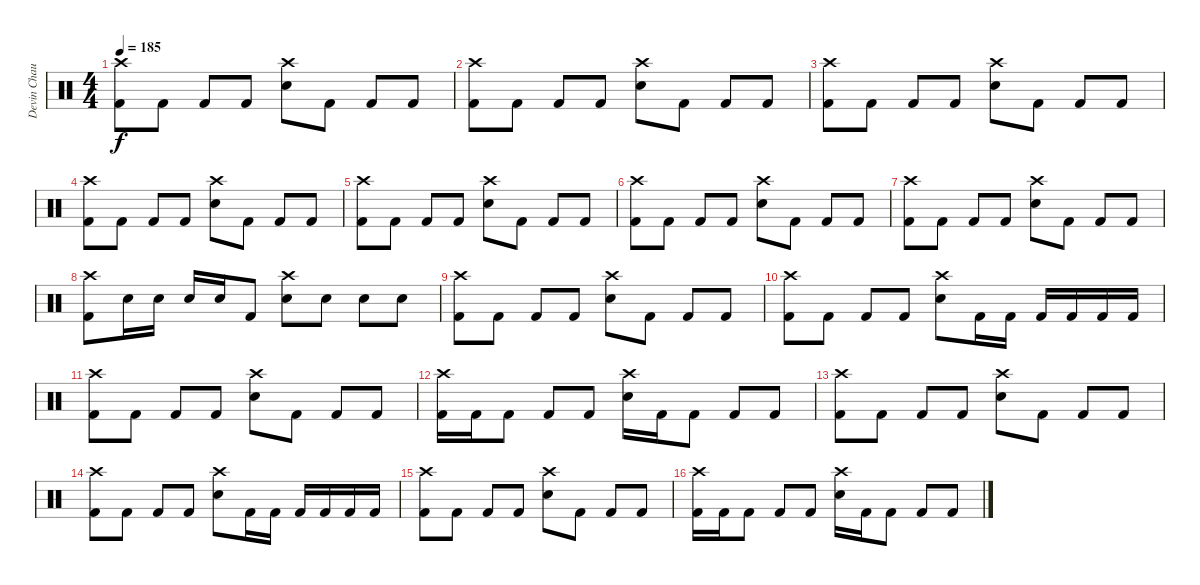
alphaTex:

\track ("Devin Chaulk" "Devin Chau") {instrument percussion}
\staff {score}
\articulation defaults
\ts (4 4)
\tempo 185
\clef neutral
\ks c
("Crash high (hit)" "Kick (hit) 2").8{dy f} "Kick (hit) 2".8 "Kick (hit) 2".8 "Kick (hit) 2".8 ("Crash high (hit)" "Snare (hit) 2").8 "Kick (hit) 2".8 "Kick (hit) 2".8 "Kick (hit) 2".8 |
("Crash high (hit)" "Kick (hit) 2").8 "Kick (hit) 2".8 "Kick (hit) 2".8 "Kick (hit) 2".8 ("Crash high (hit)" "Snare (hit) 2").8 "Kick (hit) 2".8 "Kick (hit) 2".8 "Kick (hit) 2".8 |
("Crash high (hit)" "Kick (hit) 2").8 "Kick (hit) 2".8 "Kick (hit) 2".8 "Kick (hit) 2".8 ("Crash high (hit)" "Snare (hit) 2").8 "Kick (hit) 2".8 "Kick (hit) 2".8 "Kick (hit) 2".8 |
("Crash high (hit)" "Kick (hit) 2").8 "Kick (hit) 2".8 "Kick (hit) 2".8 "Kick (hit) 2".8 ("Crash high (hit)" "Snare (hit) 2").8 "Kick (hit) 2".8 "Kick (hit) 2".8 "Kick (hit) 2".8 |
("Crash high (hit)" "Kick (hit) 2").8 "Kick (hit) 2".8 "Kick (hit) 2".8 "Kick (hit) 2".8 ("Crash high (hit)" "Snare (hit) 2").8 "Kick (hit) 2".8 "Kick (hit) 2".8 "Kick (hit) 2".8 |
("Crash high (hit)" "Kick (hit) 2").8 "Kick (hit) 2".8 "Kick (hit) 2".8 "Kick (hit) 2".8 ("Crash high (hit)" "Snare (hit) 2").8 "Kick (hit) 2".8 "Kick (hit) 2".8 "Kick (hit) 2".8 |
("Crash high (hit)" "Kick (hit) 2").8 "Kick (hit) 2".8 "Kick (hit) 2".8 "Kick (hit) 2".8 ("Crash high (hit)" "Snare (hit) 2").8 "Kick (hit) 2".8 "Kick (hit) 2".8 "Kick (hit) 2".8 |
("Crash high (hit)" "Kick (hit) 2").8 "Snare (hit) 2".16 "Snare (hit) 2".16 "Snare (hit) 2".16 "Snare (hit) 2".16 "Kick (hit) 2".8 ("Crash high (hit)" "Snare (hit) 2").8 "Snare (hit) 2".8 "Snare (hit) 2".8 "Snare (hit) 2".8 |
("Crash high (hit)" "Kick (hit) 2").8 "Kick (hit) 2".8 "Kick (hit) 2".8 "Kick (hit) 2".8 ("Crash high (hit)" "Snare (hit) 2").8 "Kick (hit) 2".8 "Kick (hit) 2".8 "Kick (hit) 2".8 |
("Crash high (hit)" "Kick (hit) 2").8 "Kick (hit) 2".8 "Kick (hit) 2".8 "Kick (hit) 2".8 ("Crash high (hit)" "Snare (hit) 2").8 "Kick (hit) 2".16 "Kick (hit) 2".16 "Kick (hit) 2".16 "Kick (hit) 2".16 "Kick (hit) 2".16 "Kick (hit) 2".16 |
("Crash high (hit)" "Kick (hit) 2").8 "Kick (hit) 2".8 "Kick (hit) 2".8 "Kick (hit) 2".8 ("Crash high (hit)" "Snare (hit) 2").8 "Kick (hit) 2".8 "Kick (hit) 2".8 "Kick (hit) 2".8 |
("Crash high (hit)" "Kick (hit) 2").16 "Kick (hit) 2".16 "Kick (hit) 2".8 "Kick (hit) 2".8 "Kick (hit) 2".8 ("Crash high (hit)" "Snare (hit) 2").16 "Kick (hit) 2".16 "Kick (hit) 2".8 "Kick (hit) 2".8 "Kick (hit) 2".8 |
("Crash high (hit)" "Kick (hit) 2").8 "Kick (hit) 2".8 "Kick (hit) 2".8 "Kick (hit) 2".8 ("Crash high (hit)" "Snare (hit) 2").8 "Kick (hit) 2".8 "Kick (hit) 2".8 "Kick (hit) 2".8 |
("Crash high (hit)" "Kick (hit) 2").8 "Kick (hit) 2".8 "Kick (hit) 2".8 "Kick (hit) 2".8 ("Crash high (hit)" "Snare (hit) 2").8 "Kick (hit) 2".16 "Kick (hit) 2".16 "Kick (hit) 2".16 "Kick (hit) 2".16 "Kick (hit) 2".16 "Kick (hit) 2".16 |
("Crash high (hit)" "Kick (hit) 2").8 "Kick (hit) 2".8 "Kick (hit) 2".8 "Kick (hit) 2".8 ("Crash high (hit)" "Snare (hit) 2").8 "Kick (hit) 2".8 "Kick (hit) 2".8 "Kick (hit) 2".8 |
("Crash high (hit)" "Kick (hit) 2").16 "Kick (hit) 2".16 "Kick (hit) 2".8 "Kick (hit) 2".8 "Kick (hit) 2".8 ("Crash high (hit)" "Snare (hit) 2").16 "Kick (hit) 2".16 "Kick (hit) 2".8 "Kick (hit) 2".8 "Kick (hit) 2".8
